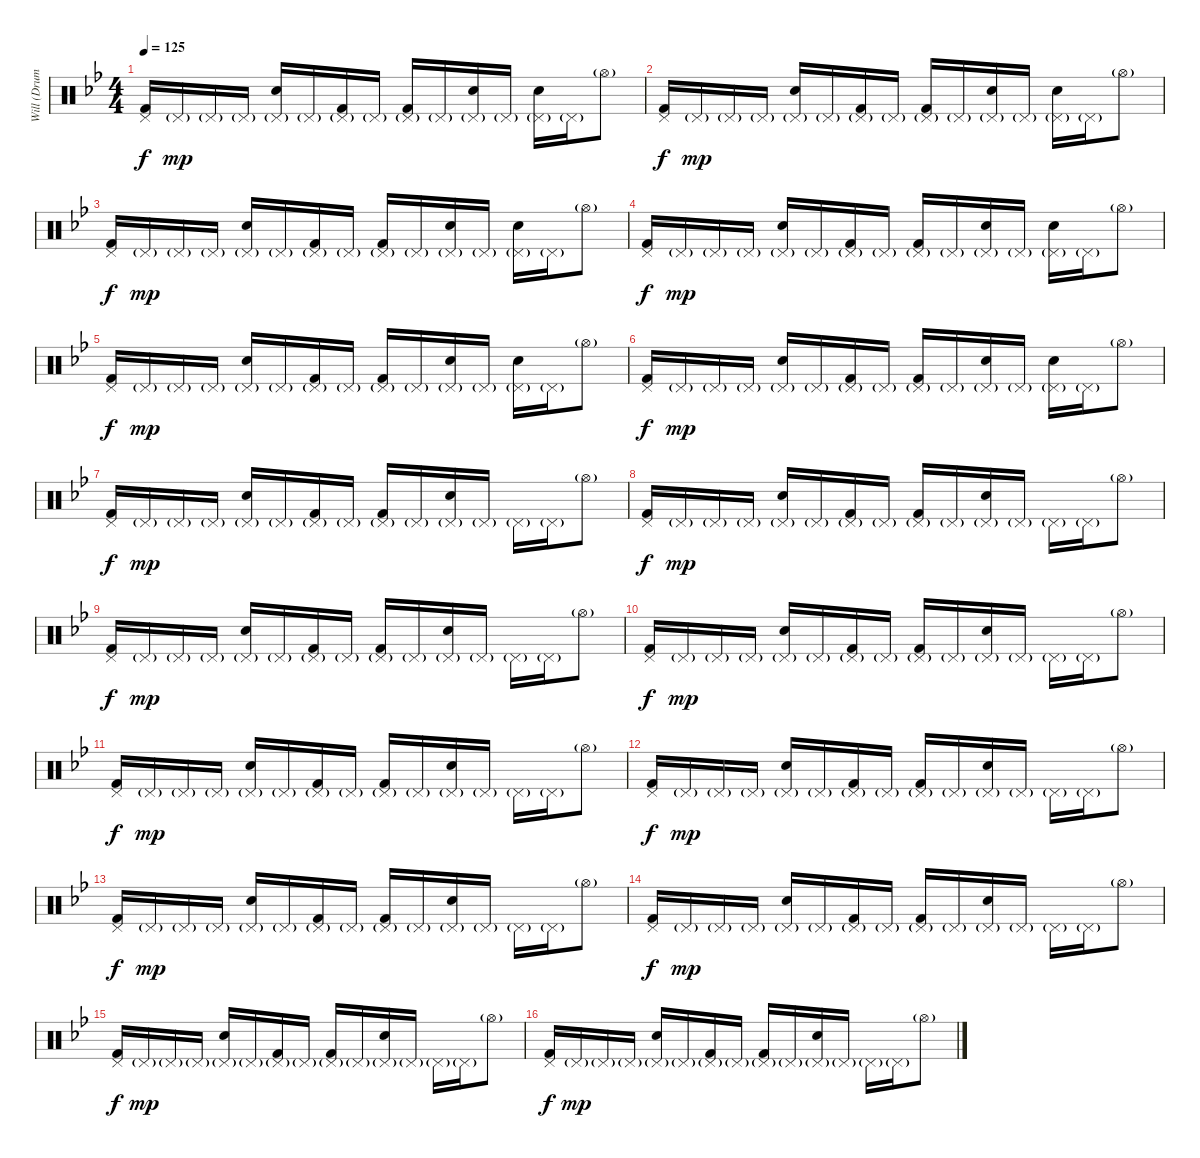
\track ("Will (Drums)" "Will (Drum") {instrument percussion}
\staff {score}
\articulation defaults
\ts (4 4)
\tempo 125
\clef neutral
\ks bb
("Kick (hit) 2" "Pedal Hi-Hat (hit)").16{dy f} "Pedal Hi-Hat (hit)"{g}.16{dy mp} "Pedal Hi-Hat (hit)"{g}.16 "Pedal Hi-Hat (hit)"{g}.16 ("Snare (hit) 2" "Pedal Hi-Hat (hit)"{g}).16 "Pedal Hi-Hat (hit)"{g}.16 ("Kick (hit) 2" "Pedal Hi-Hat (hit)"{g}).16 "Pedal Hi-Hat (hit)"{g}.16 ("Kick (hit) 2" "Pedal Hi-Hat (hit)"{g}).16 "Pedal Hi-Hat (hit)"{g}.16 ("Snare (hit) 2" "Pedal Hi-Hat (hit)"{g}).16 "Pedal Hi-Hat (hit)"{g}.16 ("Snare (hit) 2" "Pedal Hi-Hat (hit)"{g}).16 "Pedal Hi-Hat (hit)"{g}.16 "Hi-Hat (open)"{g}.8 |
("Kick (hit) 2" "Pedal Hi-Hat (hit)").16{dy f} "Pedal Hi-Hat (hit)"{g}.16{dy mp} "Pedal Hi-Hat (hit)"{g}.16 "Pedal Hi-Hat (hit)"{g}.16 ("Snare (hit) 2" "Pedal Hi-Hat (hit)"{g}).16 "Pedal Hi-Hat (hit)"{g}.16 ("Kick (hit) 2" "Pedal Hi-Hat (hit)"{g}).16 "Pedal Hi-Hat (hit)"{g}.16 ("Kick (hit) 2" "Pedal Hi-Hat (hit)"{g}).16 "Pedal Hi-Hat (hit)"{g}.16 ("Snare (hit) 2" "Pedal Hi-Hat (hit)"{g}).16 "Pedal Hi-Hat (hit)"{g}.16 ("Snare (hit) 2" "Pedal Hi-Hat (hit)"{g}).16 "Pedal Hi-Hat (hit)"{g}.16 "Hi-Hat (open)"{g}.8 |
("Kick (hit) 2" "Pedal Hi-Hat (hit)").16{dy f} "Pedal Hi-Hat (hit)"{g}.16{dy mp} "Pedal Hi-Hat (hit)"{g}.16 "Pedal Hi-Hat (hit)"{g}.16 ("Snare (hit) 2" "Pedal Hi-Hat (hit)"{g}).16 "Pedal Hi-Hat (hit)"{g}.16 ("Kick (hit) 2" "Pedal Hi-Hat (hit)"{g}).16 "Pedal Hi-Hat (hit)"{g}.16 ("Kick (hit) 2" "Pedal Hi-Hat (hit)"{g}).16 "Pedal Hi-Hat (hit)"{g}.16 ("Snare (hit) 2" "Pedal Hi-Hat (hit)"{g}).16 "Pedal Hi-Hat (hit)"{g}.16 ("Snare (hit) 2" "Pedal Hi-Hat (hit)"{g}).16 "Pedal Hi-Hat (hit)"{g}.16 "Hi-Hat (open)"{g}.8 |
("Kick (hit) 2" "Pedal Hi-Hat (hit)").16{dy f} "Pedal Hi-Hat (hit)"{g}.16{dy mp} "Pedal Hi-Hat (hit)"{g}.16 "Pedal Hi-Hat (hit)"{g}.16 ("Snare (hit) 2" "Pedal Hi-Hat (hit)"{g}).16 "Pedal Hi-Hat (hit)"{g}.16 ("Kick (hit) 2" "Pedal Hi-Hat (hit)"{g}).16 "Pedal Hi-Hat (hit)"{g}.16 ("Kick (hit) 2" "Pedal Hi-Hat (hit)"{g}).16 "Pedal Hi-Hat (hit)"{g}.16 ("Snare (hit) 2" "Pedal Hi-Hat (hit)"{g}).16 "Pedal Hi-Hat (hit)"{g}.16 ("Snare (hit) 2" "Pedal Hi-Hat (hit)"{g}).16 "Pedal Hi-Hat (hit)"{g}.16 "Hi-Hat (open)"{g}.8 |
("Kick (hit) 2" "Pedal Hi-Hat (hit)").16{dy f} "Pedal Hi-Hat (hit)"{g}.16{dy mp} "Pedal Hi-Hat (hit)"{g}.16 "Pedal Hi-Hat (hit)"{g}.16 ("Snare (hit) 2" "Pedal Hi-Hat (hit)"{g}).16 "Pedal Hi-Hat (hit)"{g}.16 ("Kick (hit) 2" "Pedal Hi-Hat (hit)"{g}).16 "Pedal Hi-Hat (hit)"{g}.16 ("Kick (hit) 2" "Pedal Hi-Hat (hit)"{g}).16 "Pedal Hi-Hat (hit)"{g}.16 ("Snare (hit) 2" "Pedal Hi-Hat (hit)"{g}).16 "Pedal Hi-Hat (hit)"{g}.16 ("Snare (hit) 2" "Pedal Hi-Hat (hit)"{g}).16 "Pedal Hi-Hat (hit)"{g}.16 "Hi-Hat (open)"{g}.8 |
("Kick (hit) 2" "Pedal Hi-Hat (hit)").16{dy f} "Pedal Hi-Hat (hit)"{g}.16{dy mp} "Pedal Hi-Hat (hit)"{g}.16 "Pedal Hi-Hat (hit)"{g}.16 ("Snare (hit) 2" "Pedal Hi-Hat (hit)"{g}).16 "Pedal Hi-Hat (hit)"{g}.16 ("Kick (hit) 2" "Pedal Hi-Hat (hit)"{g}).16 "Pedal Hi-Hat (hit)"{g}.16 ("Kick (hit) 2" "Pedal Hi-Hat (hit)"{g}).16 "Pedal Hi-Hat (hit)"{g}.16 ("Snare (hit) 2" "Pedal Hi-Hat (hit)"{g}).16 "Pedal Hi-Hat (hit)"{g}.16 ("Snare (hit) 2" "Pedal Hi-Hat (hit)"{g}).16 "Pedal Hi-Hat (hit)"{g}.16 "Hi-Hat (open)"{g}.8 |
("Kick (hit) 2" "Pedal Hi-Hat (hit)").16{dy f} "Pedal Hi-Hat (hit)"{g}.16{dy mp} "Pedal Hi-Hat (hit)"{g}.16 "Pedal Hi-Hat (hit)"{g}.16 ("Snare (hit) 2" "Pedal Hi-Hat (hit)"{g}).16 "Pedal Hi-Hat (hit)"{g}.16 ("Kick (hit) 2" "Pedal Hi-Hat (hit)"{g}).16 "Pedal Hi-Hat (hit)"{g}.16 ("Kick (hit) 2" "Pedal Hi-Hat (hit)"{g}).16 "Pedal Hi-Hat (hit)"{g}.16 ("Snare (hit) 2" "Pedal Hi-Hat (hit)"{g}).16 "Pedal Hi-Hat (hit)"{g}.16 "Pedal Hi-Hat (hit)"{g}.16 "Pedal Hi-Hat (hit)"{g}.16 "Hi-Hat (open)"{g}.8 |
("Kick (hit) 2" "Pedal Hi-Hat (hit)").16{dy f} "Pedal Hi-Hat (hit)"{g}.16{dy mp} "Pedal Hi-Hat (hit)"{g}.16 "Pedal Hi-Hat (hit)"{g}.16 ("Snare (hit) 2" "Pedal Hi-Hat (hit)"{g}).16 "Pedal Hi-Hat (hit)"{g}.16 ("Kick (hit) 2" "Pedal Hi-Hat (hit)"{g}).16 "Pedal Hi-Hat (hit)"{g}.16 ("Kick (hit) 2" "Pedal Hi-Hat (hit)"{g}).16 "Pedal Hi-Hat (hit)"{g}.16 ("Snare (hit) 2" "Pedal Hi-Hat (hit)"{g}).16 "Pedal Hi-Hat (hit)"{g}.16 "Pedal Hi-Hat (hit)"{g}.16 "Pedal Hi-Hat (hit)"{g}.16 "Hi-Hat (open)"{g}.8 |
("Kick (hit) 2" "Pedal Hi-Hat (hit)").16{dy f} "Pedal Hi-Hat (hit)"{g}.16{dy mp} "Pedal Hi-Hat (hit)"{g}.16 "Pedal Hi-Hat (hit)"{g}.16 ("Snare (hit) 2" "Pedal Hi-Hat (hit)"{g}).16 "Pedal Hi-Hat (hit)"{g}.16 ("Kick (hit) 2" "Pedal Hi-Hat (hit)"{g}).16 "Pedal Hi-Hat (hit)"{g}.16 ("Kick (hit) 2" "Pedal Hi-Hat (hit)"{g}).16 "Pedal Hi-Hat (hit)"{g}.16 ("Snare (hit) 2" "Pedal Hi-Hat (hit)"{g}).16 "Pedal Hi-Hat (hit)"{g}.16 "Pedal Hi-Hat (hit)"{g}.16 "Pedal Hi-Hat (hit)"{g}.16 "Hi-Hat (open)"{g}.8 |
("Kick (hit) 2" "Pedal Hi-Hat (hit)").16{dy f} "Pedal Hi-Hat (hit)"{g}.16{dy mp} "Pedal Hi-Hat (hit)"{g}.16 "Pedal Hi-Hat (hit)"{g}.16 ("Snare (hit) 2" "Pedal Hi-Hat (hit)"{g}).16 "Pedal Hi-Hat (hit)"{g}.16 ("Kick (hit) 2" "Pedal Hi-Hat (hit)"{g}).16 "Pedal Hi-Hat (hit)"{g}.16 ("Kick (hit) 2" "Pedal Hi-Hat (hit)"{g}).16 "Pedal Hi-Hat (hit)"{g}.16 ("Snare (hit) 2" "Pedal Hi-Hat (hit)"{g}).16 "Pedal Hi-Hat (hit)"{g}.16 "Pedal Hi-Hat (hit)"{g}.16 "Pedal Hi-Hat (hit)"{g}.16 "Hi-Hat (open)"{g}.8 |
("Kick (hit) 2" "Pedal Hi-Hat (hit)").16{dy f} "Pedal Hi-Hat (hit)"{g}.16{dy mp} "Pedal Hi-Hat (hit)"{g}.16 "Pedal Hi-Hat (hit)"{g}.16 ("Snare (hit) 2" "Pedal Hi-Hat (hit)"{g}).16 "Pedal Hi-Hat (hit)"{g}.16 ("Kick (hit) 2" "Pedal Hi-Hat (hit)"{g}).16 "Pedal Hi-Hat (hit)"{g}.16 ("Kick (hit) 2" "Pedal Hi-Hat (hit)"{g}).16 "Pedal Hi-Hat (hit)"{g}.16 ("Snare (hit) 2" "Pedal Hi-Hat (hit)"{g}).16 "Pedal Hi-Hat (hit)"{g}.16 "Pedal Hi-Hat (hit)"{g}.16 "Pedal Hi-Hat (hit)"{g}.16 "Hi-Hat (open)"{g}.8 |
("Kick (hit) 2" "Pedal Hi-Hat (hit)").16{dy f} "Pedal Hi-Hat (hit)"{g}.16{dy mp} "Pedal Hi-Hat (hit)"{g}.16 "Pedal Hi-Hat (hit)"{g}.16 ("Snare (hit) 2" "Pedal Hi-Hat (hit)"{g}).16 "Pedal Hi-Hat (hit)"{g}.16 ("Kick (hit) 2" "Pedal Hi-Hat (hit)"{g}).16 "Pedal Hi-Hat (hit)"{g}.16 ("Kick (hit) 2" "Pedal Hi-Hat (hit)"{g}).16 "Pedal Hi-Hat (hit)"{g}.16 ("Snare (hit) 2" "Pedal Hi-Hat (hit)"{g}).16 "Pedal Hi-Hat (hit)"{g}.16 "Pedal Hi-Hat (hit)"{g}.16 "Pedal Hi-Hat (hit)"{g}.16 "Hi-Hat (open)"{g}.8 |
("Kick (hit) 2" "Pedal Hi-Hat (hit)").16{dy f} "Pedal Hi-Hat (hit)"{g}.16{dy mp} "Pedal Hi-Hat (hit)"{g}.16 "Pedal Hi-Hat (hit)"{g}.16 ("Snare (hit) 2" "Pedal Hi-Hat (hit)"{g}).16 "Pedal Hi-Hat (hit)"{g}.16 ("Kick (hit) 2" "Pedal Hi-Hat (hit)"{g}).16 "Pedal Hi-Hat (hit)"{g}.16 ("Kick (hit) 2" "Pedal Hi-Hat (hit)"{g}).16 "Pedal Hi-Hat (hit)"{g}.16 ("Snare (hit) 2" "Pedal Hi-Hat (hit)"{g}).16 "Pedal Hi-Hat (hit)"{g}.16 "Pedal Hi-Hat (hit)"{g}.16 "Pedal Hi-Hat (hit)"{g}.16 "Hi-Hat (open)"{g}.8 |
("Kick (hit) 2" "Pedal Hi-Hat (hit)").16{dy f} "Pedal Hi-Hat (hit)"{g}.16{dy mp} "Pedal Hi-Hat (hit)"{g}.16 "Pedal Hi-Hat (hit)"{g}.16 ("Snare (hit) 2" "Pedal Hi-Hat (hit)"{g}).16 "Pedal Hi-Hat (hit)"{g}.16 ("Kick (hit) 2" "Pedal Hi-Hat (hit)"{g}).16 "Pedal Hi-Hat (hit)"{g}.16 ("Kick (hit) 2" "Pedal Hi-Hat (hit)"{g}).16 "Pedal Hi-Hat (hit)"{g}.16 ("Snare (hit) 2" "Pedal Hi-Hat (hit)"{g}).16 "Pedal Hi-Hat (hit)"{g}.16 "Pedal Hi-Hat (hit)"{g}.16 "Pedal Hi-Hat (hit)"{g}.16 "Hi-Hat (open)"{g}.8 |
("Kick (hit) 2" "Pedal Hi-Hat (hit)").16{dy f} "Pedal Hi-Hat (hit)"{g}.16{dy mp} "Pedal Hi-Hat (hit)"{g}.16 "Pedal Hi-Hat (hit)"{g}.16 ("Snare (hit) 2" "Pedal Hi-Hat (hit)"{g}).16 "Pedal Hi-Hat (hit)"{g}.16 ("Kick (hit) 2" "Pedal Hi-Hat (hit)"{g}).16 "Pedal Hi-Hat (hit)"{g}.16 ("Kick (hit) 2" "Pedal Hi-Hat (hit)"{g}).16 "Pedal Hi-Hat (hit)"{g}.16 ("Snare (hit) 2" "Pedal Hi-Hat (hit)"{g}).16 "Pedal Hi-Hat (hit)"{g}.16 "Pedal Hi-Hat (hit)"{g}.16 "Pedal Hi-Hat (hit)"{g}.16 "Hi-Hat (open)"{g}.8 |
("Kick (hit) 2" "Pedal Hi-Hat (hit)").16{dy f} "Pedal Hi-Hat (hit)"{g}.16{dy mp} "Pedal Hi-Hat (hit)"{g}.16 "Pedal Hi-Hat (hit)"{g}.16 ("Snare (hit) 2" "Pedal Hi-Hat (hit)"{g}).16 "Pedal Hi-Hat (hit)"{g}.16 ("Kick (hit) 2" "Pedal Hi-Hat (hit)"{g}).16 "Pedal Hi-Hat (hit)"{g}.16 ("Kick (hit) 2" "Pedal Hi-Hat (hit)"{g}).16 "Pedal Hi-Hat (hit)"{g}.16 ("Snare (hit) 2" "Pedal Hi-Hat (hit)"{g}).16 "Pedal Hi-Hat (hit)"{g}.16 "Pedal Hi-Hat (hit)"{g}.16 "Pedal Hi-Hat (hit)"{g}.16 "Hi-Hat (open)"{g}.8
